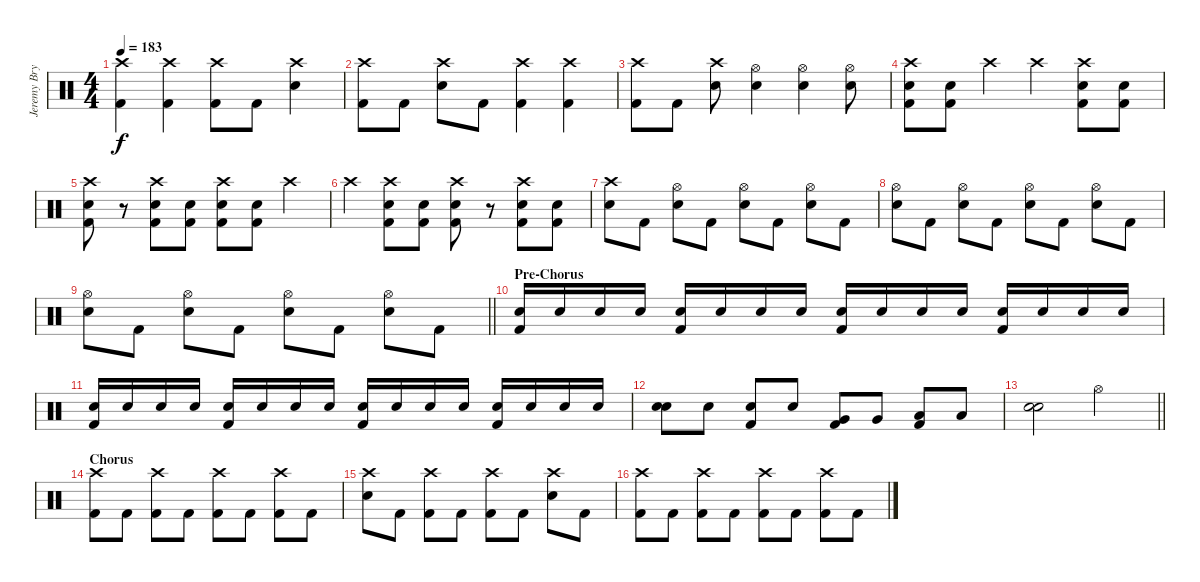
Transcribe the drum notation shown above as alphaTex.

\track ("Jeremy Bryan - Drums" "Jeremy Bry") {instrument percussion}
\staff {score}
\articulation defaults
\ts (4 4)
\tempo 183
\clef neutral
\ks c
("Crash high (hit)" "Kick (hit) 2").4{dy f} ("Crash high (hit)" "Kick (hit) 2").4 ("Crash high (hit)" "Kick (hit) 2").8 "Kick (hit) 2".8 ("Crash high (hit)" "Electric Snare (hit)").4 |
("Crash high (hit)" "Kick (hit) 2").8 "Kick (hit) 2".8 ("Crash high (hit)" "Electric Snare (hit)").8 "Kick (hit) 2".8 ("Crash high (hit)" "Kick (hit) 2").4 ("Crash high (hit)" "Kick (hit) 2").4 |
("Crash high (hit)" "Kick (hit) 2").8 "Kick (hit) 2".8 ("Crash high (hit)" "Electric Snare (hit)").8 ("Hi-Hat (open)" "Electric Snare (hit)").4 ("Hi-Hat (open)" "Electric Snare (hit)").4 ("Hi-Hat (open)" "Electric Snare (hit)").8 |
("Crash high (hit)" "Electric Snare (hit)" "Kick (hit) 2").8 ("Electric Snare (hit)" "Kick (hit) 2").8 "Crash high (hit)".4 "Crash high (hit)".4 ("Crash high (hit)" "Electric Snare (hit)" "Kick (hit) 2").8 ("Electric Snare (hit)" "Kick (hit) 2").8 |
("Crash high (hit)" "Electric Snare (hit)" "Kick (hit) 2").8 r.8 ("Crash high (hit)" "Electric Snare (hit)" "Kick (hit) 2").8 ("Electric Snare (hit)" "Kick (hit) 2").8 ("Crash high (hit)" "Electric Snare (hit)" "Kick (hit) 2").8 ("Electric Snare (hit)" "Kick (hit) 2").8 "Crash high (hit)".4 |
"Crash high (hit)".4 ("Crash high (hit)" "Electric Snare (hit)" "Kick (hit) 2").8 ("Electric Snare (hit)" "Kick (hit) 2").8 ("Crash high (hit)" "Electric Snare (hit)" "Kick (hit) 2").8 r.8 ("Crash high (hit)" "Electric Snare (hit)" "Kick (hit) 2").8 ("Electric Snare (hit)" "Kick (hit) 2").8 |
("Crash high (hit)" "Electric Snare (hit)").8 "Kick (hit) 2".8 ("Hi-Hat (open)" "Electric Snare (hit)").8 "Kick (hit) 2".8 ("Hi-Hat (open)" "Electric Snare (hit)").8 "Kick (hit) 2".8 ("Hi-Hat (open)" "Electric Snare (hit)").8 "Kick (hit) 2".8 |
("Hi-Hat (open)" "Electric Snare (hit)").8 "Kick (hit) 2".8 ("Hi-Hat (open)" "Electric Snare (hit)").8 "Kick (hit) 2".8 ("Hi-Hat (open)" "Electric Snare (hit)").8 "Kick (hit) 2".8 ("Hi-Hat (open)" "Electric Snare (hit)").8 "Kick (hit) 2".8 |
\barLineRight lightlight
("Hi-Hat (open)" "Electric Snare (hit)").8 "Kick (hit) 2".8 ("Hi-Hat (open)" "Electric Snare (hit)").8 "Kick (hit) 2".8 ("Hi-Hat (open)" "Electric Snare (hit)").8 "Kick (hit) 2".8 ("Hi-Hat (open)" "Electric Snare (hit)").8 "Kick (hit) 2".8 |
\section ("" "Pre-Chorus")
("Electric Snare (hit)" "Kick (hit) 2").16 "Electric Snare (hit)".16 "Electric Snare (hit)".16 "Electric Snare (hit)".16 ("Electric Snare (hit)" "Kick (hit) 2").16 "Electric Snare (hit)".16 "Electric Snare (hit)".16 "Electric Snare (hit)".16 ("Electric Snare (hit)" "Kick (hit) 2").16 "Electric Snare (hit)".16 "Electric Snare (hit)".16 "Electric Snare (hit)".16 ("Electric Snare (hit)" "Kick (hit) 2").16 "Electric Snare (hit)".16 "Electric Snare (hit)".16 "Electric Snare (hit)".16 |
("Electric Snare (hit)" "Kick (hit) 2").16 "Electric Snare (hit)".16 "Electric Snare (hit)".16 "Electric Snare (hit)".16 ("Electric Snare (hit)" "Kick (hit) 2").16 "Electric Snare (hit)".16 "Electric Snare (hit)".16 "Electric Snare (hit)".16 ("Electric Snare (hit)" "Kick (hit) 2").16 "Electric Snare (hit)".16 "Electric Snare (hit)".16 "Electric Snare (hit)".16 ("Electric Snare (hit)" "Kick (hit) 2").16 "Electric Snare (hit)".16 "Electric Snare (hit)".16 "Electric Snare (hit)".16 |
("Electric Snare (hit)" "Snare (hit)").8 "Electric Snare (hit)".8 ("Electric Snare (hit)" "Kick (hit) 2").8 "Electric Snare (hit)".8 ("Very Low Tom (hit)" "Kick (hit) 2").8 "Very Low Tom (hit)".8 ("Low Floor Tom (hit)" "Kick (hit) 2").8 "Low Floor Tom (hit)".8 |
\barLineRight lightlight
("Electric Snare (hit)" "Electric Snare (hit)").2 "Hi-Hat (open)".2 |
\section ("" "Chorus")
("Crash high (hit)" "Kick (hit) 2").8 "Kick (hit) 2".8 ("Crash high (hit)" "Kick (hit) 2").8 "Kick (hit) 2".8 ("Crash high (hit)" "Kick (hit) 2").8 "Kick (hit) 2".8 ("Crash high (hit)" "Kick (hit) 2").8 "Kick (hit) 2".8 |
("Crash high (hit)" "Electric Snare (hit)").8 "Kick (hit) 2".8 ("Crash high (hit)" "Kick (hit) 2").8 "Kick (hit) 2".8 ("Crash high (hit)" "Kick (hit) 2").8 "Kick (hit) 2".8 ("Crash high (hit)" "Electric Snare (hit)").8 "Kick (hit) 2".8 |
("Crash high (hit)" "Kick (hit) 2").8 "Kick (hit) 2".8 ("Crash high (hit)" "Kick (hit) 2").8 "Kick (hit) 2".8 ("Crash high (hit)" "Kick (hit) 2").8 "Kick (hit) 2".8 ("Crash high (hit)" "Kick (hit) 2").8 "Kick (hit) 2".8
